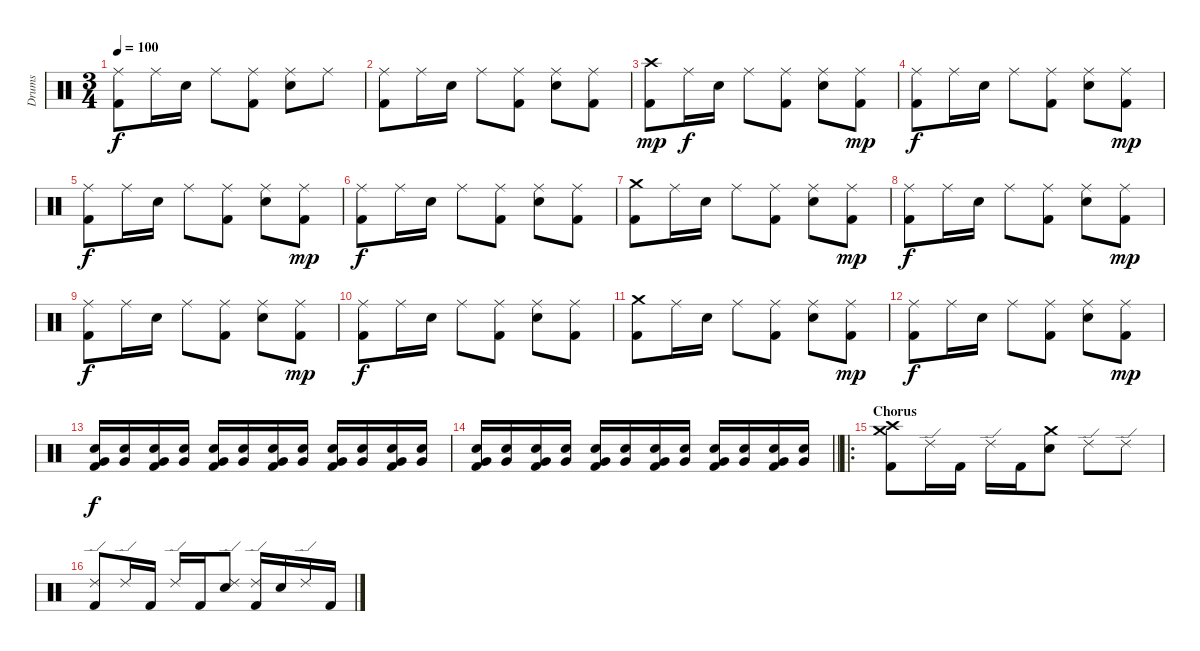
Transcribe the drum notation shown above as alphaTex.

\track ("Drums" "Drums") {instrument percussion}
\staff {score}
\articulation defaults
\ts (3 4)
\tempo 100
\clef neutral
\ks c
("Ride (middle)" "Kick (hit) 2").8{dy f} "Ride (middle)".16 "Electric Snare (hit)".16 "Ride (middle)".8 ("Ride (middle)" "Kick (hit) 2").8 ("Ride (middle)" "Electric Snare (hit)").8 "Ride (middle)".8 |
("Ride (middle)" "Kick (hit) 2").8 "Ride (middle)".16 "Electric Snare (hit)".16 "Ride (middle)".8 ("Ride (middle)" "Kick (hit) 2").8 ("Ride (middle)" "Electric Snare (hit)").8 ("Ride (middle)" "Kick (hit) 2").8 |
("Crash high (hit)" "Kick (hit) 2").8{dy mp} "Ride (middle)".16{dy f} "Electric Snare (hit)".16 "Ride (middle)".8 ("Ride (middle)" "Kick (hit) 2").8 ("Ride (middle)" "Electric Snare (hit)").8 ("Ride (middle)" "Kick (hit) 2").8{dy mp} |
("Ride (middle)" "Kick (hit) 2").8{dy f} "Ride (middle)".16 "Electric Snare (hit)".16 "Ride (middle)".8 ("Ride (middle)" "Kick (hit) 2").8 ("Ride (middle)" "Electric Snare (hit)").8 ("Ride (middle)" "Kick (hit) 2").8{dy mp} |
("Ride (middle)" "Kick (hit) 2").8{dy f} "Ride (middle)".16 "Electric Snare (hit)".16 "Ride (middle)".8 ("Ride (middle)" "Kick (hit) 2").8 ("Ride (middle)" "Electric Snare (hit)").8 ("Ride (middle)" "Kick (hit) 2").8{dy mp} |
("Ride (middle)" "Kick (hit) 2").8{dy f} "Ride (middle)".16 "Electric Snare (hit)".16 "Ride (middle)".8 ("Ride (middle)" "Kick (hit) 2").8 ("Ride (middle)" "Electric Snare (hit)").8 ("Ride (middle)" "Kick (hit) 2").8 |
("Crash medium (hit)" "Kick (hit) 2").8 "Ride (middle)".16 "Electric Snare (hit)".16 "Ride (middle)".8 ("Ride (middle)" "Kick (hit) 2").8 ("Ride (middle)" "Electric Snare (hit)").8 ("Ride (middle)" "Kick (hit) 2").8{dy mp} |
("Ride (middle)" "Kick (hit) 2").8{dy f} "Ride (middle)".16 "Electric Snare (hit)".16 "Ride (middle)".8 ("Ride (middle)" "Kick (hit) 2").8 ("Ride (middle)" "Electric Snare (hit)").8 ("Ride (middle)" "Kick (hit) 2").8{dy mp} |
("Ride (middle)" "Kick (hit) 2").8{dy f} "Ride (middle)".16 "Electric Snare (hit)".16 "Ride (middle)".8 ("Ride (middle)" "Kick (hit) 2").8 ("Ride (middle)" "Electric Snare (hit)").8 ("Ride (middle)" "Kick (hit) 2").8{dy mp} |
("Ride (middle)" "Kick (hit) 2").8{dy f} "Ride (middle)".16 "Electric Snare (hit)".16 "Ride (middle)".8 ("Ride (middle)" "Kick (hit) 2").8 ("Ride (middle)" "Electric Snare (hit)").8 ("Ride (middle)" "Kick (hit) 2").8 |
("Crash medium (hit)" "Kick (hit) 2").8 "Ride (middle)".16 "Electric Snare (hit)".16 "Ride (middle)".8 ("Ride (middle)" "Kick (hit) 2").8 ("Ride (middle)" "Electric Snare (hit)").8 ("Ride (middle)" "Kick (hit) 2").8{dy mp} |
("Ride (middle)" "Kick (hit) 2").8{dy f} "Ride (middle)".16 "Electric Snare (hit)".16 "Ride (middle)".8 ("Ride (middle)" "Kick (hit) 2").8 ("Ride (middle)" "Electric Snare (hit)").8 ("Ride (middle)" "Kick (hit) 2").8{dy mp} |
("Electric Snare (hit)" "Very Low Tom (hit)" "Kick (hit) 2").16{dy f} ("Electric Snare (hit)" "Very Low Tom (hit)").16 ("Electric Snare (hit)" "Very Low Tom (hit)" "Kick (hit) 2").16 ("Electric Snare (hit)" "Very Low Tom (hit)").16 ("Electric Snare (hit)" "Very Low Tom (hit)" "Kick (hit) 2").16 ("Electric Snare (hit)" "Very Low Tom (hit)").16 ("Electric Snare (hit)" "Very Low Tom (hit)" "Kick (hit) 2").16 ("Electric Snare (hit)" "Very Low Tom (hit)").16 ("Electric Snare (hit)" "Very Low Tom (hit)" "Kick (hit) 2").16 ("Electric Snare (hit)" "Very Low Tom (hit)").16 ("Electric Snare (hit)" "Very Low Tom (hit)" "Kick (hit) 2").16 ("Electric Snare (hit)" "Very Low Tom (hit)").16 |
\barLineRight lightlight
("Electric Snare (hit)" "Very Low Tom (hit)" "Kick (hit) 2").16 ("Electric Snare (hit)" "Very Low Tom (hit)").16 ("Electric Snare (hit)" "Very Low Tom (hit)" "Kick (hit) 2").16 ("Electric Snare (hit)" "Very Low Tom (hit)").16 ("Electric Snare (hit)" "Very Low Tom (hit)" "Kick (hit) 2").16 ("Electric Snare (hit)" "Very Low Tom (hit)").16 ("Electric Snare (hit)" "Very Low Tom (hit)" "Kick (hit) 2").16 ("Electric Snare (hit)" "Very Low Tom (hit)").16 ("Electric Snare (hit)" "Very Low Tom (hit)" "Kick (hit) 2").16 ("Electric Snare (hit)" "Very Low Tom (hit)").16 ("Electric Snare (hit)" "Very Low Tom (hit)" "Kick (hit) 2").16 ("Electric Snare (hit)" "Very Low Tom (hit)").16 |
\ro
\section ("" "Chorus")
("Crash high (hit)" "Crash medium (hit)" "Kick (hit) 2").8 "Ride (edge) 2".16 "Kick (hit) 2".16 "Ride (edge) 2".16 "Kick (hit) 2".16 ("Crash medium (hit)" "Electric Snare (hit)").8 "Ride (edge) 2".8 "Ride (edge) 2".8 |
("Ride (edge) 2" "Kick (hit) 2").8 "Ride (edge) 2".16 "Kick (hit) 2".16 "Ride (edge) 2".16 "Kick (hit) 2".16 ("Ride (edge) 2" "Electric Snare (hit)").8 ("Ride (edge) 2" "Kick (hit) 2").16 "Electric Snare (hit)".16 "Ride (edge) 2".16 "Kick (hit) 2".16
